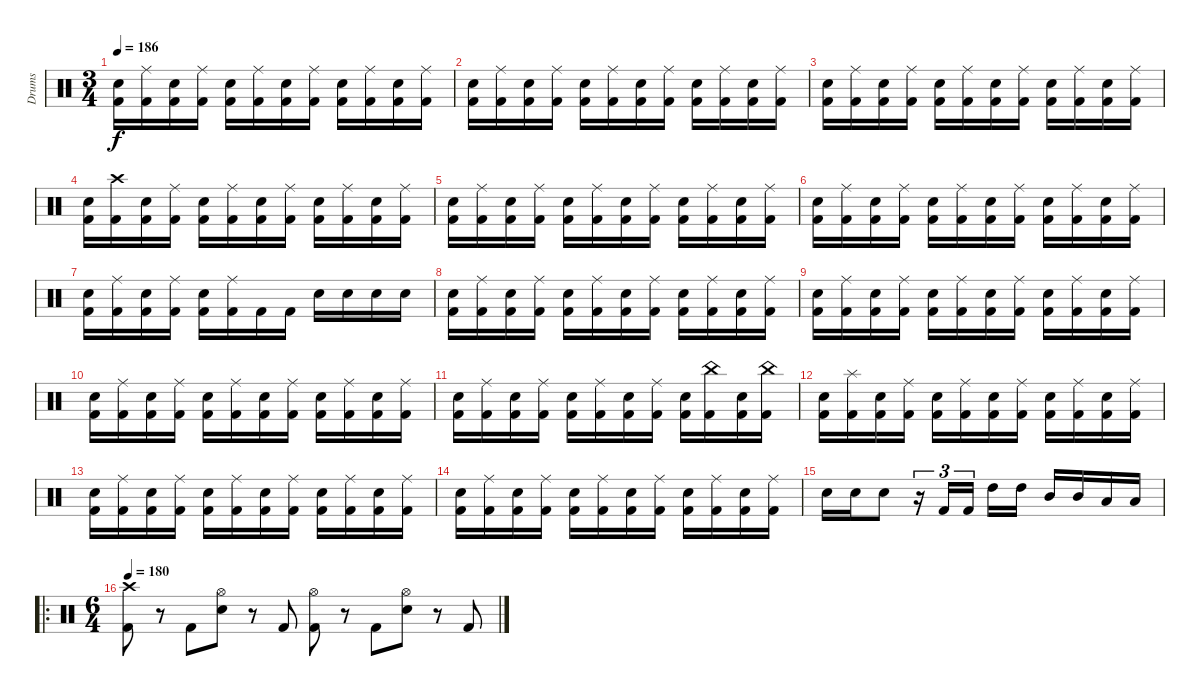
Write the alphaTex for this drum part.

\track ("Drums" "Drums") {instrument percussion}
\staff {score}
\articulation defaults
\ts (3 4)
\tempo 186
\clef neutral
\ks c
("Electric Snare (hit)" "Kick (hit) 2").16{dy f} ("Ride (middle)" "Kick (hit) 2").16 ("Electric Snare (hit)" "Kick (hit) 2").16 ("Ride (middle)" "Kick (hit) 2").16 ("Electric Snare (hit)" "Kick (hit) 2").16 ("Ride (middle)" "Kick (hit) 2").16 ("Electric Snare (hit)" "Kick (hit) 2").16 ("Ride (middle)" "Kick (hit) 2").16 ("Electric Snare (hit)" "Kick (hit) 2").16 ("Ride (middle)" "Kick (hit) 2").16 ("Electric Snare (hit)" "Kick (hit) 2").16 ("Ride (middle)" "Kick (hit) 2").16 |
("Electric Snare (hit)" "Kick (hit) 2").16 ("Ride (middle)" "Kick (hit) 2").16 ("Electric Snare (hit)" "Kick (hit) 2").16 ("Ride (middle)" "Kick (hit) 2").16 ("Electric Snare (hit)" "Kick (hit) 2").16 ("Ride (middle)" "Kick (hit) 2").16 ("Electric Snare (hit)" "Kick (hit) 2").16 ("Ride (middle)" "Kick (hit) 2").16 ("Electric Snare (hit)" "Kick (hit) 2").16 ("Ride (middle)" "Kick (hit) 2").16 ("Electric Snare (hit)" "Kick (hit) 2").16 ("Ride (middle)" "Kick (hit) 2").16 |
("Electric Snare (hit)" "Kick (hit) 2").16 ("Ride (middle)" "Kick (hit) 2").16 ("Electric Snare (hit)" "Kick (hit) 2").16 ("Ride (middle)" "Kick (hit) 2").16 ("Electric Snare (hit)" "Kick (hit) 2").16 ("Ride (middle)" "Kick (hit) 2").16 ("Electric Snare (hit)" "Kick (hit) 2").16 ("Ride (middle)" "Kick (hit) 2").16 ("Electric Snare (hit)" "Kick (hit) 2").16 ("Ride (middle)" "Kick (hit) 2").16 ("Electric Snare (hit)" "Kick (hit) 2").16 ("Ride (middle)" "Kick (hit) 2").16 |
("Electric Snare (hit)" "Kick (hit) 2").16 ("Crash high (hit)" "Kick (hit) 2").16 ("Electric Snare (hit)" "Kick (hit) 2").16 ("Ride (middle)" "Kick (hit) 2").16 ("Electric Snare (hit)" "Kick (hit) 2").16 ("Ride (middle)" "Kick (hit) 2").16 ("Electric Snare (hit)" "Kick (hit) 2").16 ("Ride (middle)" "Kick (hit) 2").16 ("Electric Snare (hit)" "Kick (hit) 2").16 ("Ride (middle)" "Kick (hit) 2").16 ("Electric Snare (hit)" "Kick (hit) 2").16 ("Ride (middle)" "Kick (hit) 2").16 |
("Electric Snare (hit)" "Kick (hit) 2").16 ("Ride (middle)" "Kick (hit) 2").16 ("Electric Snare (hit)" "Kick (hit) 2").16 ("Ride (middle)" "Kick (hit) 2").16 ("Electric Snare (hit)" "Kick (hit) 2").16 ("Ride (middle)" "Kick (hit) 2").16 ("Electric Snare (hit)" "Kick (hit) 2").16 ("Ride (middle)" "Kick (hit) 2").16 ("Electric Snare (hit)" "Kick (hit) 2").16 ("Ride (middle)" "Kick (hit) 2").16 ("Electric Snare (hit)" "Kick (hit) 2").16 ("Ride (middle)" "Kick (hit) 2").16 |
("Electric Snare (hit)" "Kick (hit) 2").16 ("Ride (middle)" "Kick (hit) 2").16 ("Electric Snare (hit)" "Kick (hit) 2").16 ("Ride (middle)" "Kick (hit) 2").16 ("Electric Snare (hit)" "Kick (hit) 2").16 ("Ride (middle)" "Kick (hit) 2").16 ("Electric Snare (hit)" "Kick (hit) 2").16 ("Ride (middle)" "Kick (hit) 2").16 ("Electric Snare (hit)" "Kick (hit) 2").16 ("Ride (middle)" "Kick (hit) 2").16 ("Electric Snare (hit)" "Kick (hit) 2").16 ("Ride (middle)" "Kick (hit) 2").16 |
("Electric Snare (hit)" "Kick (hit) 2").16 ("Ride (middle)" "Kick (hit) 2").16 ("Electric Snare (hit)" "Kick (hit) 2").16 ("Ride (middle)" "Kick (hit) 2").16 ("Electric Snare (hit)" "Kick (hit) 2").16 ("Ride (middle)" "Kick (hit) 2").16 "Kick (hit) 2".16 "Kick (hit) 2".16 "Electric Snare (hit)".16 "Electric Snare (hit)".16 "Electric Snare (hit)".16 "Electric Snare (hit)".16 |
("Electric Snare (hit)" "Kick (hit) 2").16 ("Ride (middle)" "Kick (hit) 2").16 ("Electric Snare (hit)" "Kick (hit) 2").16 ("Ride (middle)" "Kick (hit) 2").16 ("Electric Snare (hit)" "Kick (hit) 2").16 ("Ride (middle)" "Kick (hit) 2").16 ("Electric Snare (hit)" "Kick (hit) 2").16 ("Ride (middle)" "Kick (hit) 2").16 ("Electric Snare (hit)" "Kick (hit) 2").16 ("Ride (middle)" "Kick (hit) 2").16 ("Electric Snare (hit)" "Kick (hit) 2").16 ("Ride (middle)" "Kick (hit) 2").16 |
("Electric Snare (hit)" "Kick (hit) 2").16 ("Ride (middle)" "Kick (hit) 2").16 ("Electric Snare (hit)" "Kick (hit) 2").16 ("Ride (middle)" "Kick (hit) 2").16 ("Electric Snare (hit)" "Kick (hit) 2").16 ("Ride (middle)" "Kick (hit) 2").16 ("Electric Snare (hit)" "Kick (hit) 2").16 ("Ride (middle)" "Kick (hit) 2").16 ("Electric Snare (hit)" "Kick (hit) 2").16 ("Ride (middle)" "Kick (hit) 2").16 ("Electric Snare (hit)" "Kick (hit) 2").16 ("Ride (middle)" "Kick (hit) 2").16 |
("Electric Snare (hit)" "Kick (hit) 2").16 ("Ride (middle)" "Kick (hit) 2").16 ("Electric Snare (hit)" "Kick (hit) 2").16 ("Ride (middle)" "Kick (hit) 2").16 ("Electric Snare (hit)" "Kick (hit) 2").16 ("Ride (middle)" "Kick (hit) 2").16 ("Electric Snare (hit)" "Kick (hit) 2").16 ("Ride (middle)" "Kick (hit) 2").16 ("Electric Snare (hit)" "Kick (hit) 2").16 ("Ride (middle)" "Kick (hit) 2").16 ("Electric Snare (hit)" "Kick (hit) 2").16 ("Ride (middle)" "Kick (hit) 2").16 |
("Electric Snare (hit)" "Kick (hit) 2").16 ("Ride (middle)" "Kick (hit) 2").16 ("Electric Snare (hit)" "Kick (hit) 2").16 ("Ride (middle)" "Kick (hit) 2").16 ("Electric Snare (hit)" "Kick (hit) 2").16 ("Ride (middle)" "Kick (hit) 2").16 ("Electric Snare (hit)" "Kick (hit) 2").16 ("Ride (middle)" "Kick (hit) 2").16 ("Electric Snare (hit)" "Kick (hit) 2").16 ("China (hit)" "Kick (hit) 2").16 ("Electric Snare (hit)" "Kick (hit) 2").16 ("China (hit)" "Kick (hit) 2").16 |
("Electric Snare (hit)" "Kick (hit) 2").16 ("Splash (hit)" "Kick (hit) 2").16 ("Electric Snare (hit)" "Kick (hit) 2").16 ("Ride (middle)" "Kick (hit) 2").16 ("Electric Snare (hit)" "Kick (hit) 2").16 ("Ride (middle)" "Kick (hit) 2").16 ("Electric Snare (hit)" "Kick (hit) 2").16 ("Ride (middle)" "Kick (hit) 2").16 ("Electric Snare (hit)" "Kick (hit) 2").16 ("Ride (middle)" "Kick (hit) 2").16 ("Electric Snare (hit)" "Kick (hit) 2").16 ("Ride (middle)" "Kick (hit) 2").16 |
("Electric Snare (hit)" "Kick (hit) 2").16 ("Ride (middle)" "Kick (hit) 2").16 ("Electric Snare (hit)" "Kick (hit) 2").16 ("Ride (middle)" "Kick (hit) 2").16 ("Electric Snare (hit)" "Kick (hit) 2").16 ("Ride (middle)" "Kick (hit) 2").16 ("Electric Snare (hit)" "Kick (hit) 2").16 ("Ride (middle)" "Kick (hit) 2").16 ("Electric Snare (hit)" "Kick (hit) 2").16 ("Ride (middle)" "Kick (hit) 2").16 ("Electric Snare (hit)" "Kick (hit) 2").16 ("Ride (middle)" "Kick (hit) 2").16 |
("Electric Snare (hit)" "Kick (hit) 2").16 ("Ride (middle)" "Kick (hit) 2").16 ("Electric Snare (hit)" "Kick (hit) 2").16 ("Ride (middle)" "Kick (hit) 2").16 ("Electric Snare (hit)" "Kick (hit) 2").16 ("Ride (middle)" "Kick (hit) 2").16 ("Electric Snare (hit)" "Kick (hit) 2").16 ("Ride (middle)" "Kick (hit) 2").16 ("Electric Snare (hit)" "Kick (hit) 2").16 ("Ride (middle)" "Kick (hit) 2").16 ("Electric Snare (hit)" "Kick (hit) 2").16 ("Ride (middle)" "Kick (hit) 2").16 |
"Electric Snare (hit)".16 "Electric Snare (hit)".16 "Electric Snare (hit)".8 r.16{tu (3 2)} "Kick (hit) 2".16{tu (3 2)} "Kick (hit) 2".16{tu (3 2)} "High Tom (hit)".16 "High Tom (hit)".16 "Mid Tom (hit)".16 "Mid Tom (hit)".16 "Low Tom (hit)".16 "Low Tom (hit)".16 |
\ro
\ts (6 4)
\tempo 180
("Crash high (hit)" "Kick (hit) 2").8 r.8 "Kick (hit) 2".8 ("Hi-Hat (open)" "Electric Snare (hit)").8 r.8 "Kick (hit) 2".8 ("Hi-Hat (open)" "Kick (hit) 2").8 r.8 "Kick (hit) 2".8 ("Hi-Hat (open)" "Electric Snare (hit)").8 r.8 "Kick (hit) 2".8
